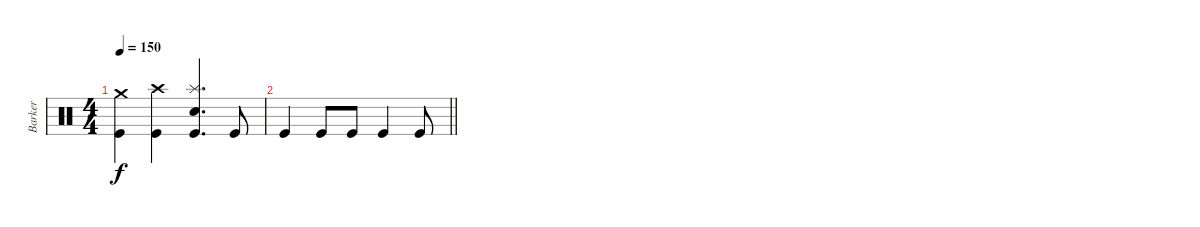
\track ("Barker" "Barker") {instrument percussion}
\staff {score}
\articulation defaults
\ts (4 4)
\tempo 150
\clef neutral
\ks c
("Crash medium (hit)" "Kick (hit)").4{dy f} ("Crash high (hit)" "Kick (hit)").4 ("Splash (hit)" "Electric Snare (hit)" "Kick (hit)").4{d} "Kick (hit)".8 |
\barLineRight lightlight "Kick (hit)".4 "Kick (hit)".8 "Kick (hit)".8 "Kick (hit)".4 "Kick (hit)".8
